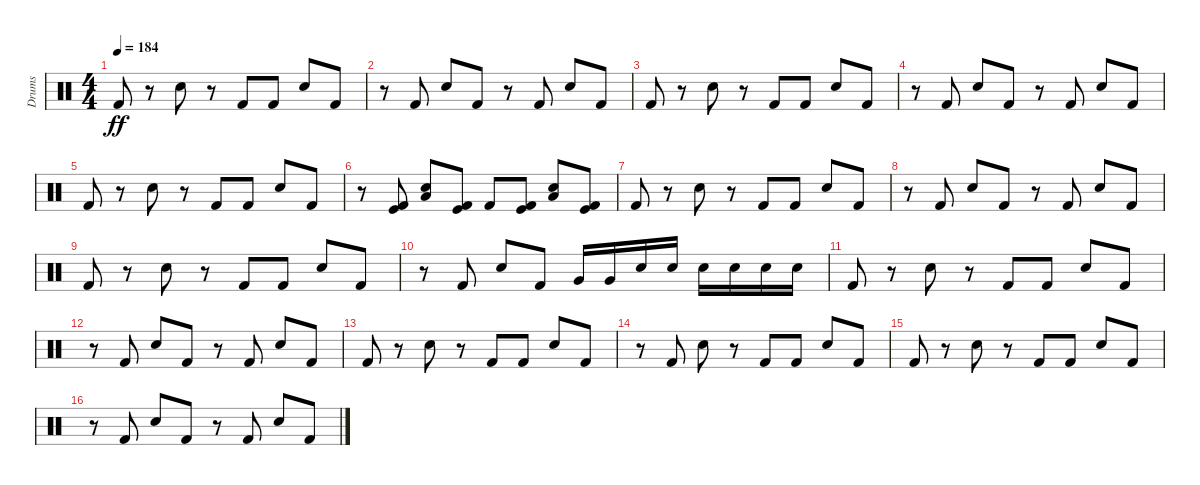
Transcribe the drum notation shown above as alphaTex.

\track ("Drums" "Drums") {instrument percussion}
\staff {score}
\articulation defaults
\ts (4 4)
\tempo 184
\clef neutral
\ks c "Kick (hit) 2".8{dy ff}
r.8 "Electric Snare (hit)".8 r.8 "Kick (hit) 2".8 "Kick (hit) 2".8 "Electric Snare (hit)".8 "Kick (hit) 2".8 |
r.8 "Kick (hit) 2".8 "Electric Snare (hit)".8 "Kick (hit) 2".8 r.8 "Kick (hit) 2".8 "Electric Snare (hit)".8 "Kick (hit) 2".8 |
"Kick (hit) 2".8 r.8 "Electric Snare (hit)".8 r.8 "Kick (hit) 2".8 "Kick (hit) 2".8 "Electric Snare (hit)".8 "Kick (hit) 2".8 |
r.8 "Kick (hit) 2".8 "Electric Snare (hit)".8 "Kick (hit) 2".8 r.8 "Kick (hit) 2".8 "Electric Snare (hit)".8 "Kick (hit) 2".8 |
"Kick (hit) 2".8 r.8 "Electric Snare (hit)".8 r.8 "Kick (hit) 2".8 "Kick (hit) 2".8 "Electric Snare (hit)".8 "Kick (hit) 2".8 |
r.8 ("Kick (hit)" "Kick (hit) 2").8 ("Electric Snare (hit)" "Low Floor Tom (hit)").8 ("Kick (hit)" "Kick (hit) 2").8 "Kick (hit) 2".8 ("Kick (hit)" "Kick (hit) 2").8 ("Electric Snare (hit)" "Low Floor Tom (hit)").8 ("Kick (hit)" "Kick (hit) 2").8 |
"Kick (hit) 2".8 r.8 "Electric Snare (hit)".8 r.8 "Kick (hit) 2".8 "Kick (hit) 2".8 "Electric Snare (hit)".8 "Kick (hit) 2".8 |
r.8 "Kick (hit) 2".8 "Electric Snare (hit)".8 "Kick (hit) 2".8 r.8 "Kick (hit) 2".8 "Electric Snare (hit)".8 "Kick (hit) 2".8 |
"Kick (hit) 2".8 r.8 "Electric Snare (hit)".8 r.8 "Kick (hit) 2".8 "Kick (hit) 2".8 "Electric Snare (hit)".8 "Kick (hit) 2".8 |
r.8 "Kick (hit) 2".8 "Electric Snare (hit)".8 "Kick (hit) 2".8 "Very Low Tom (hit)".16 "Very Low Tom (hit)".16 "Electric Snare (hit)".16 "Electric Snare (hit)".16 "Electric Snare (hit)".16 "Electric Snare (hit)".16 "Electric Snare (hit)".16 "Electric Snare (hit)".16 |
"Kick (hit) 2".8 r.8 "Electric Snare (hit)".8 r.8 "Kick (hit) 2".8 "Kick (hit) 2".8 "Electric Snare (hit)".8 "Kick (hit) 2".8 |
r.8 "Kick (hit) 2".8 "Electric Snare (hit)".8 "Kick (hit) 2".8 r.8 "Kick (hit) 2".8 "Electric Snare (hit)".8 "Kick (hit) 2".8 |
"Kick (hit) 2".8 r.8 "Electric Snare (hit)".8 r.8 "Kick (hit) 2".8 "Kick (hit) 2".8 "Electric Snare (hit)".8 "Kick (hit) 2".8 |
r.8 "Kick (hit) 2".8 "Electric Snare (hit)".8 r.8 "Kick (hit) 2".8 "Kick (hit) 2".8 "Electric Snare (hit)".8 "Kick (hit) 2".8 |
"Kick (hit) 2".8 r.8 "Electric Snare (hit)".8 r.8 "Kick (hit) 2".8 "Kick (hit) 2".8 "Electric Snare (hit)".8 "Kick (hit) 2".8 |
r.8 "Kick (hit) 2".8 "Electric Snare (hit)".8 "Kick (hit) 2".8 r.8 "Kick (hit) 2".8 "Electric Snare (hit)".8 "Kick (hit) 2".8
